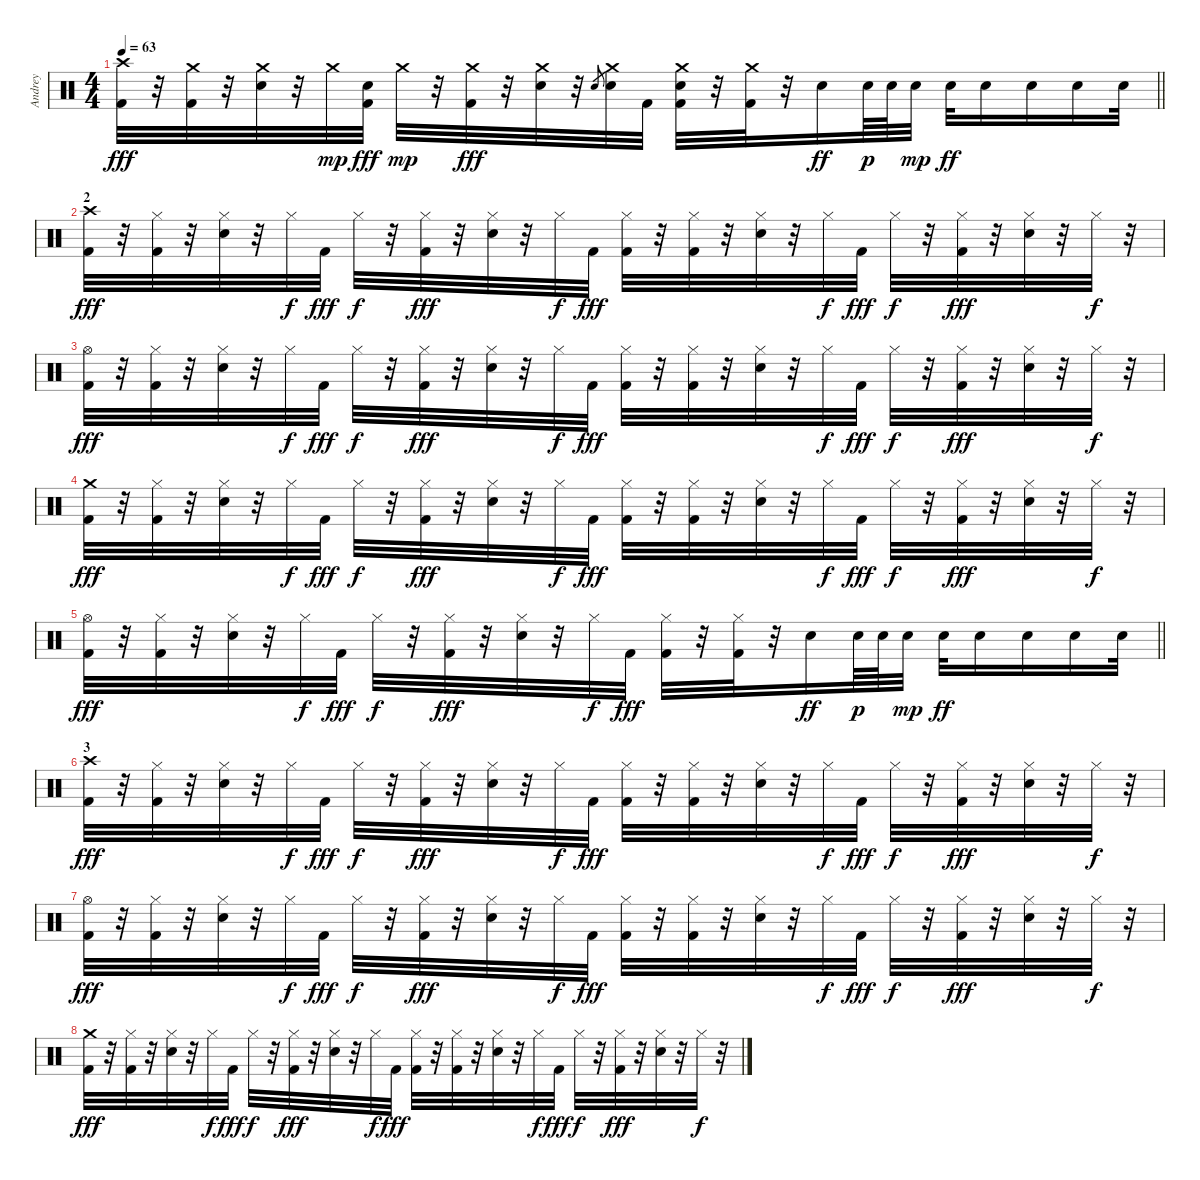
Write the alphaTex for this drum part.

\track ("Andrey" "Andrey") {instrument percussion}
\staff {score}
\articulation defaults
\ts (4 4)
\tempo 63
\clef neutral
\barLineRight lightlight
\ks c
("Crash high (hit)" "Kick (hit) 2").32{dy fff} r.32 ("Crash medium (hit)" "Kick (hit) 2").32 r.32 ("Crash medium (hit)" "Snare (hit) 2").32 r.32 "Crash medium (hit)".32{dy mp} ("Snare (hit) 2" "Kick (hit) 2").32{dy fff} "Crash medium (hit)".32{dy mp} r.32 ("Crash medium (hit)" "Kick (hit) 2").32{dy fff} r.32 ("Crash medium (hit)" "Snare (hit) 2").32 r.32 "Snare (hit) 2".8{gr} ("Crash medium (hit)" "Electric Snare (hit)").32 "Kick (hit) 2".32 ("Crash medium (hit)" "Electric Snare (hit)" "Kick (hit) 2").32 r.32 ("Crash medium (hit)" "Kick (hit) 2").32 r.32 "Electric Snare (hit)".16{dy ff} "Electric Snare (hit)".64{dy p} "Electric Snare (hit)".64 "Electric Snare (hit)".32{dy mp} "Electric Snare (hit)".32{dy ff} "Electric Snare (hit)".16 "Electric Snare (hit)".16 "Electric Snare (hit)".16 "Electric Snare (hit)".32 |
\section ("" "2")
("Crash high (hit)" "Kick (hit) 2").32{dy fff} r.32 ("Hi-Hat (closed)" "Kick (hit) 2").32 r.32 ("Hi-Hat (closed)" "Snare (hit) 2").32 r.32 "Hi-Hat (closed)".32{dy f} "Kick (hit) 2".32{dy fff} "Hi-Hat (closed)".32{dy f} r.32 ("Hi-Hat (closed)" "Kick (hit) 2").32{dy fff} r.32 ("Hi-Hat (closed)" "Snare (hit) 2").32 r.32 "Hi-Hat (closed)".32{dy f} "Kick (hit) 2".32{dy fff} ("Hi-Hat (closed)" "Kick (hit) 2").32 r.32 ("Hi-Hat (closed)" "Kick (hit) 2").32 r.32 ("Hi-Hat (closed)" "Snare (hit) 2").32 r.32 "Hi-Hat (closed)".32{dy f} "Kick (hit) 2".32{dy fff} "Hi-Hat (closed)".32{dy f} r.32 ("Hi-Hat (closed)" "Kick (hit) 2").32{dy fff} r.32 ("Hi-Hat (closed)" "Snare (hit) 2").32 r.32 "Hi-Hat (closed)".32{dy f} r.32 |
("Hi-Hat (open)" "Kick (hit) 2").32{dy fff} r.32 ("Hi-Hat (closed)" "Kick (hit) 2").32 r.32 ("Hi-Hat (closed)" "Snare (hit) 2").32 r.32 "Hi-Hat (closed)".32{dy f} "Kick (hit) 2".32{dy fff} "Hi-Hat (closed)".32{dy f} r.32 ("Hi-Hat (closed)" "Kick (hit) 2").32{dy fff} r.32 ("Hi-Hat (closed)" "Snare (hit) 2").32 r.32 "Hi-Hat (closed)".32{dy f} "Kick (hit) 2".32{dy fff} ("Hi-Hat (closed)" "Kick (hit) 2").32 r.32 ("Hi-Hat (closed)" "Kick (hit) 2").32 r.32 ("Hi-Hat (closed)" "Snare (hit) 2").32 r.32 "Hi-Hat (closed)".32{dy f} "Kick (hit) 2".32{dy fff} "Hi-Hat (closed)".32{dy f} r.32 ("Hi-Hat (closed)" "Kick (hit) 2").32{dy fff} r.32 ("Hi-Hat (closed)" "Snare (hit) 2").32 r.32 "Hi-Hat (closed)".32{dy f} r.32 |
("Crash medium (hit)" "Kick (hit) 2").32{dy fff} r.32 ("Hi-Hat (closed)" "Kick (hit) 2").32 r.32 ("Hi-Hat (closed)" "Snare (hit) 2").32 r.32 "Hi-Hat (closed)".32{dy f} "Kick (hit) 2".32{dy fff} "Hi-Hat (closed)".32{dy f} r.32 ("Hi-Hat (closed)" "Kick (hit) 2").32{dy fff} r.32 ("Hi-Hat (closed)" "Snare (hit) 2").32 r.32 "Hi-Hat (closed)".32{dy f} "Kick (hit) 2".32{dy fff} ("Hi-Hat (closed)" "Kick (hit) 2").32 r.32 ("Hi-Hat (closed)" "Kick (hit) 2").32 r.32 ("Hi-Hat (closed)" "Snare (hit) 2").32 r.32 "Hi-Hat (closed)".32{dy f} "Kick (hit) 2".32{dy fff} "Hi-Hat (closed)".32{dy f} r.32 ("Hi-Hat (closed)" "Kick (hit) 2").32{dy fff} r.32 ("Hi-Hat (closed)" "Snare (hit) 2").32 r.32 "Hi-Hat (closed)".32{dy f} r.32 |
\barLineRight lightlight
("Hi-Hat (open)" "Kick (hit) 2").32{dy fff} r.32 ("Hi-Hat (closed)" "Kick (hit) 2").32 r.32 ("Hi-Hat (closed)" "Snare (hit) 2").32 r.32 "Hi-Hat (closed)".32{dy f} "Kick (hit) 2".32{dy fff} "Hi-Hat (closed)".32{dy f} r.32 ("Hi-Hat (closed)" "Kick (hit) 2").32{dy fff} r.32 ("Hi-Hat (closed)" "Snare (hit) 2").32 r.32 "Hi-Hat (closed)".32{dy f} "Kick (hit) 2".32{dy fff} ("Hi-Hat (closed)" "Kick (hit) 2").32 r.32 ("Hi-Hat (closed)" "Kick (hit) 2").32 r.32 "Electric Snare (hit)".16{dy ff} "Electric Snare (hit)".64{dy p} "Electric Snare (hit)".64 "Electric Snare (hit)".32{dy mp} "Electric Snare (hit)".32{dy ff} "Electric Snare (hit)".16 "Electric Snare (hit)".16 "Electric Snare (hit)".16 "Electric Snare (hit)".32 |
\section ("" "3")
("Crash high (hit)" "Kick (hit) 2").32{dy fff} r.32 ("Hi-Hat (closed)" "Kick (hit) 2").32 r.32 ("Hi-Hat (closed)" "Snare (hit) 2").32 r.32 "Hi-Hat (closed)".32{dy f} "Kick (hit) 2".32{dy fff} "Hi-Hat (closed)".32{dy f} r.32 ("Hi-Hat (closed)" "Kick (hit) 2").32{dy fff} r.32 ("Hi-Hat (closed)" "Snare (hit) 2").32 r.32 "Hi-Hat (closed)".32{dy f} "Kick (hit) 2".32{dy fff} ("Hi-Hat (closed)" "Kick (hit) 2").32 r.32 ("Hi-Hat (closed)" "Kick (hit) 2").32 r.32 ("Hi-Hat (closed)" "Snare (hit) 2").32 r.32 "Hi-Hat (closed)".32{dy f} "Kick (hit) 2".32{dy fff} "Hi-Hat (closed)".32{dy f} r.32 ("Hi-Hat (closed)" "Kick (hit) 2").32{dy fff} r.32 ("Hi-Hat (closed)" "Snare (hit) 2").32 r.32 "Hi-Hat (closed)".32{dy f} r.32 |
("Hi-Hat (open)" "Kick (hit) 2").32{dy fff} r.32 ("Hi-Hat (closed)" "Kick (hit) 2").32 r.32 ("Hi-Hat (closed)" "Snare (hit) 2").32 r.32 "Hi-Hat (closed)".32{dy f} "Kick (hit) 2".32{dy fff} "Hi-Hat (closed)".32{dy f} r.32 ("Hi-Hat (closed)" "Kick (hit) 2").32{dy fff} r.32 ("Hi-Hat (closed)" "Snare (hit) 2").32 r.32 "Hi-Hat (closed)".32{dy f} "Kick (hit) 2".32{dy fff} ("Hi-Hat (closed)" "Kick (hit) 2").32 r.32 ("Hi-Hat (closed)" "Kick (hit) 2").32 r.32 ("Hi-Hat (closed)" "Snare (hit) 2").32 r.32 "Hi-Hat (closed)".32{dy f} "Kick (hit) 2".32{dy fff} "Hi-Hat (closed)".32{dy f} r.32 ("Hi-Hat (closed)" "Kick (hit) 2").32{dy fff} r.32 ("Hi-Hat (closed)" "Snare (hit) 2").32 r.32 "Hi-Hat (closed)".32{dy f} r.32 |
("Crash medium (hit)" "Kick (hit) 2").32{dy fff} r.32 ("Hi-Hat (closed)" "Kick (hit) 2").32 r.32 ("Hi-Hat (closed)" "Snare (hit) 2").32 r.32 "Hi-Hat (closed)".32{dy f} "Kick (hit) 2".32{dy fff} "Hi-Hat (closed)".32{dy f} r.32 ("Hi-Hat (closed)" "Kick (hit) 2").32{dy fff} r.32 ("Hi-Hat (closed)" "Snare (hit) 2").32 r.32 "Hi-Hat (closed)".32{dy f} "Kick (hit) 2".32{dy fff} ("Hi-Hat (closed)" "Kick (hit) 2").32 r.32 ("Hi-Hat (closed)" "Kick (hit) 2").32 r.32 ("Hi-Hat (closed)" "Snare (hit) 2").32 r.32 "Hi-Hat (closed)".32{dy f} "Kick (hit) 2".32{dy fff} "Hi-Hat (closed)".32{dy f} r.32 ("Hi-Hat (closed)" "Kick (hit) 2").32{dy fff} r.32 ("Hi-Hat (closed)" "Snare (hit) 2").32 r.32 "Hi-Hat (closed)".32{dy f} r.32
